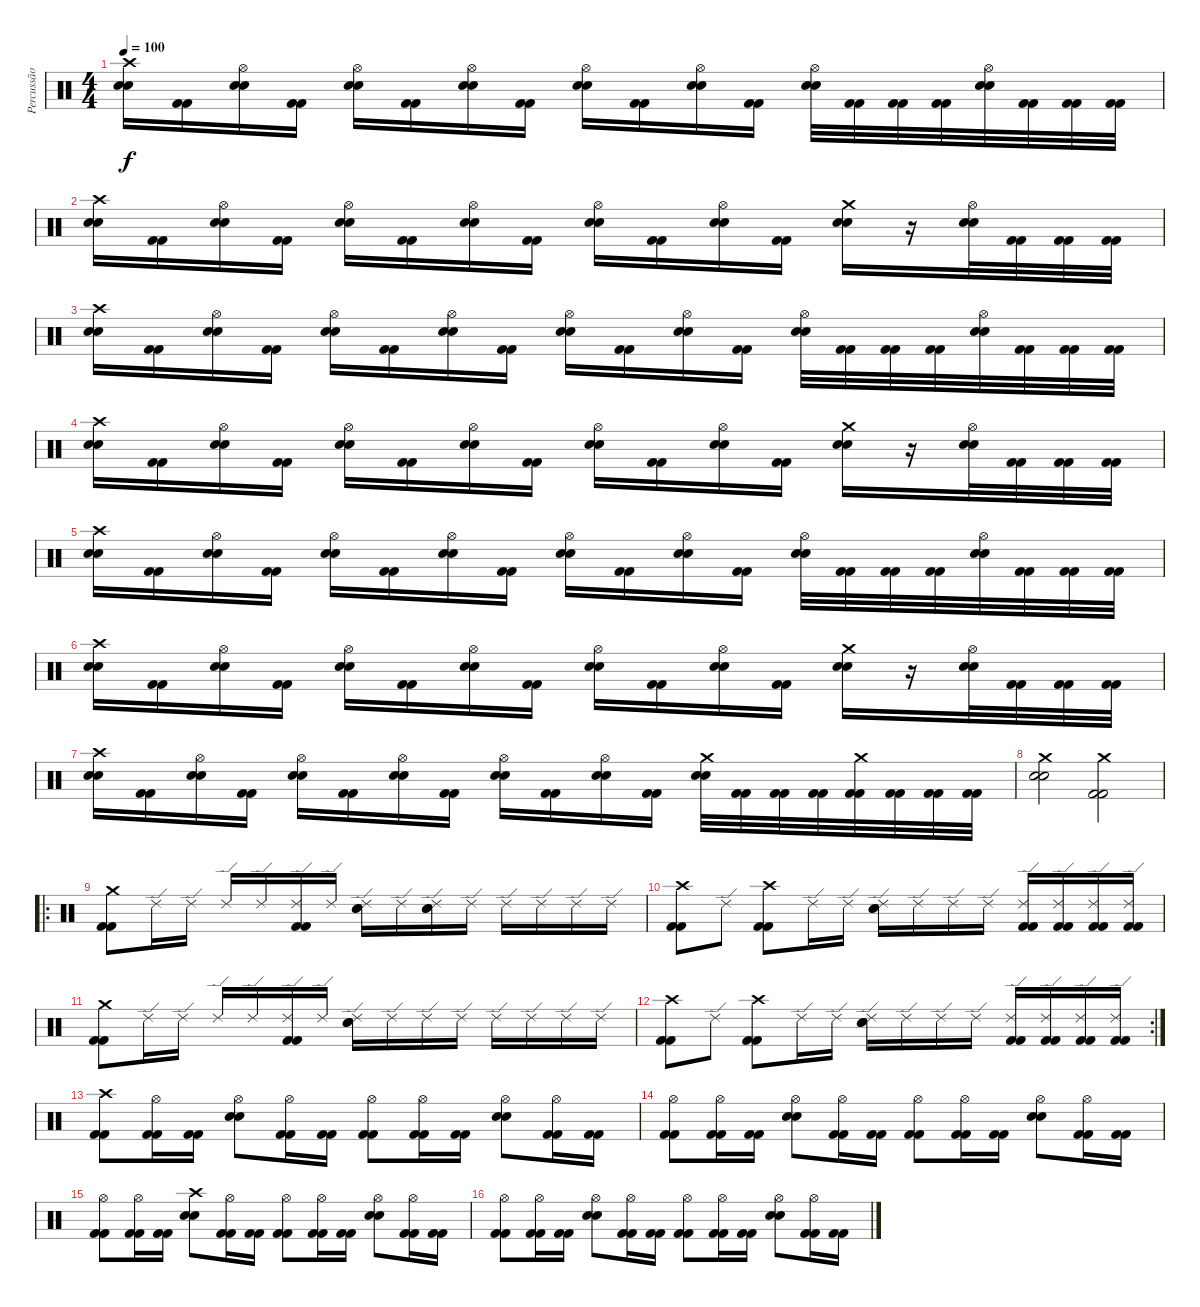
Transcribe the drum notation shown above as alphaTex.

\track ("Percussão" "Percussão") {instrument percussion}
\staff {score}
\articulation defaults
\ts (4 4)
\tempo 100
\clef neutral
\ks c
("Crash high (hit)" "Electric Snare (hit)" "Electric Snare (hit)").16{dy f} ("Kick (hit) 2" "Kick (hit) 2").16 ("Hi-Hat (open)" "Electric Snare (hit)" "Electric Snare (hit)").16 ("Kick (hit) 2" "Kick (hit) 2").16 ("Hi-Hat (open)" "Electric Snare (hit)" "Electric Snare (hit)").16 ("Kick (hit) 2" "Kick (hit) 2").16 ("Hi-Hat (open)" "Electric Snare (hit)" "Electric Snare (hit)").16 ("Kick (hit) 2" "Kick (hit) 2").16 ("Hi-Hat (open)" "Electric Snare (hit)" "Electric Snare (hit)").16 ("Kick (hit) 2" "Kick (hit) 2").16 ("Hi-Hat (open)" "Electric Snare (hit)" "Electric Snare (hit)").16 ("Kick (hit) 2" "Kick (hit) 2").16 ("Hi-Hat (open)" "Electric Snare (hit)" "Electric Snare (hit)").32 ("Kick (hit) 2" "Kick (hit) 2").32 ("Kick (hit) 2" "Kick (hit) 2").32 ("Kick (hit) 2" "Kick (hit) 2").32 ("Hi-Hat (open)" "Electric Snare (hit)" "Electric Snare (hit)").32 ("Kick (hit) 2" "Kick (hit) 2").32 ("Kick (hit) 2" "Kick (hit) 2").32 ("Kick (hit) 2" "Kick (hit) 2").32 |
("Crash high (hit)" "Electric Snare (hit)" "Electric Snare (hit)").16 ("Kick (hit) 2" "Kick (hit) 2").16 ("Hi-Hat (open)" "Electric Snare (hit)" "Electric Snare (hit)").16 ("Kick (hit) 2" "Kick (hit) 2").16 ("Hi-Hat (open)" "Electric Snare (hit)" "Electric Snare (hit)").16 ("Kick (hit) 2" "Kick (hit) 2").16 ("Hi-Hat (open)" "Electric Snare (hit)" "Electric Snare (hit)").16 ("Kick (hit) 2" "Kick (hit) 2").16 ("Hi-Hat (open)" "Electric Snare (hit)" "Electric Snare (hit)").16 ("Kick (hit) 2" "Kick (hit) 2").16 ("Hi-Hat (open)" "Electric Snare (hit)" "Electric Snare (hit)").16 ("Kick (hit) 2" "Kick (hit) 2").16 ("Crash medium (hit)" "Electric Snare (hit)" "Electric Snare (hit)").16 r.16 ("Hi-Hat (open)" "Electric Snare (hit)" "Electric Snare (hit)").32 ("Kick (hit) 2" "Kick (hit) 2").32 ("Kick (hit) 2" "Kick (hit) 2").32 ("Kick (hit) 2" "Kick (hit) 2").32 |
("Crash high (hit)" "Electric Snare (hit)" "Electric Snare (hit)").16 ("Kick (hit) 2" "Kick (hit) 2").16 ("Hi-Hat (open)" "Electric Snare (hit)" "Electric Snare (hit)").16 ("Kick (hit) 2" "Kick (hit) 2").16 ("Hi-Hat (open)" "Electric Snare (hit)" "Electric Snare (hit)").16 ("Kick (hit) 2" "Kick (hit) 2").16 ("Hi-Hat (open)" "Electric Snare (hit)" "Electric Snare (hit)").16 ("Kick (hit) 2" "Kick (hit) 2").16 ("Hi-Hat (open)" "Electric Snare (hit)" "Electric Snare (hit)").16 ("Kick (hit) 2" "Kick (hit) 2").16 ("Hi-Hat (open)" "Electric Snare (hit)" "Electric Snare (hit)").16 ("Kick (hit) 2" "Kick (hit) 2").16 ("Hi-Hat (open)" "Electric Snare (hit)" "Electric Snare (hit)").32 ("Kick (hit) 2" "Kick (hit) 2").32 ("Kick (hit) 2" "Kick (hit) 2").32 ("Kick (hit) 2" "Kick (hit) 2").32 ("Hi-Hat (open)" "Electric Snare (hit)" "Electric Snare (hit)").32 ("Kick (hit) 2" "Kick (hit) 2").32 ("Kick (hit) 2" "Kick (hit) 2").32 ("Kick (hit) 2" "Kick (hit) 2").32 |
("Crash high (hit)" "Electric Snare (hit)" "Electric Snare (hit)").16 ("Kick (hit) 2" "Kick (hit) 2").16 ("Hi-Hat (open)" "Electric Snare (hit)" "Electric Snare (hit)").16 ("Kick (hit) 2" "Kick (hit) 2").16 ("Hi-Hat (open)" "Electric Snare (hit)" "Electric Snare (hit)").16 ("Kick (hit) 2" "Kick (hit) 2").16 ("Hi-Hat (open)" "Electric Snare (hit)" "Electric Snare (hit)").16 ("Kick (hit) 2" "Kick (hit) 2").16 ("Hi-Hat (open)" "Electric Snare (hit)" "Electric Snare (hit)").16 ("Kick (hit) 2" "Kick (hit) 2").16 ("Hi-Hat (open)" "Electric Snare (hit)" "Electric Snare (hit)").16 ("Kick (hit) 2" "Kick (hit) 2").16 ("Crash medium (hit)" "Electric Snare (hit)" "Electric Snare (hit)").16 r.16 ("Hi-Hat (open)" "Electric Snare (hit)" "Electric Snare (hit)").32 ("Kick (hit) 2" "Kick (hit) 2").32 ("Kick (hit) 2" "Kick (hit) 2").32 ("Kick (hit) 2" "Kick (hit) 2").32 |
("Crash high (hit)" "Electric Snare (hit)" "Electric Snare (hit)").16 ("Kick (hit) 2" "Kick (hit) 2").16 ("Hi-Hat (open)" "Electric Snare (hit)" "Electric Snare (hit)").16 ("Kick (hit) 2" "Kick (hit) 2").16 ("Hi-Hat (open)" "Electric Snare (hit)" "Electric Snare (hit)").16 ("Kick (hit) 2" "Kick (hit) 2").16 ("Hi-Hat (open)" "Electric Snare (hit)" "Electric Snare (hit)").16 ("Kick (hit) 2" "Kick (hit) 2").16 ("Hi-Hat (open)" "Electric Snare (hit)" "Electric Snare (hit)").16 ("Kick (hit) 2" "Kick (hit) 2").16 ("Hi-Hat (open)" "Electric Snare (hit)" "Electric Snare (hit)").16 ("Kick (hit) 2" "Kick (hit) 2").16 ("Hi-Hat (open)" "Electric Snare (hit)" "Electric Snare (hit)").32 ("Kick (hit) 2" "Kick (hit) 2").32 ("Kick (hit) 2" "Kick (hit) 2").32 ("Kick (hit) 2" "Kick (hit) 2").32 ("Hi-Hat (open)" "Electric Snare (hit)" "Electric Snare (hit)").32 ("Kick (hit) 2" "Kick (hit) 2").32 ("Kick (hit) 2" "Kick (hit) 2").32 ("Kick (hit) 2" "Kick (hit) 2").32 |
("Crash high (hit)" "Electric Snare (hit)" "Electric Snare (hit)").16 ("Kick (hit) 2" "Kick (hit) 2").16 ("Hi-Hat (open)" "Electric Snare (hit)" "Electric Snare (hit)").16 ("Kick (hit) 2" "Kick (hit) 2").16 ("Hi-Hat (open)" "Electric Snare (hit)" "Electric Snare (hit)").16 ("Kick (hit) 2" "Kick (hit) 2").16 ("Hi-Hat (open)" "Electric Snare (hit)" "Electric Snare (hit)").16 ("Kick (hit) 2" "Kick (hit) 2").16 ("Hi-Hat (open)" "Electric Snare (hit)" "Electric Snare (hit)").16 ("Kick (hit) 2" "Kick (hit) 2").16 ("Hi-Hat (open)" "Electric Snare (hit)" "Electric Snare (hit)").16 ("Kick (hit) 2" "Kick (hit) 2").16 ("Crash medium (hit)" "Electric Snare (hit)" "Electric Snare (hit)").16 r.16 ("Hi-Hat (open)" "Electric Snare (hit)" "Electric Snare (hit)").32 ("Kick (hit) 2" "Kick (hit) 2").32 ("Kick (hit) 2" "Kick (hit) 2").32 ("Kick (hit) 2" "Kick (hit) 2").32 |
("Crash high (hit)" "Electric Snare (hit)" "Electric Snare (hit)").16 ("Kick (hit) 2" "Kick (hit) 2").16 ("Hi-Hat (open)" "Electric Snare (hit)" "Electric Snare (hit)").16 ("Kick (hit) 2" "Kick (hit) 2").16 ("Hi-Hat (open)" "Electric Snare (hit)" "Electric Snare (hit)").16 ("Kick (hit) 2" "Kick (hit) 2").16 ("Hi-Hat (open)" "Electric Snare (hit)" "Electric Snare (hit)").16 ("Kick (hit) 2" "Kick (hit) 2").16 ("Hi-Hat (open)" "Electric Snare (hit)" "Electric Snare (hit)").16 ("Kick (hit) 2" "Kick (hit) 2").16 ("Hi-Hat (open)" "Electric Snare (hit)" "Electric Snare (hit)").16 ("Kick (hit) 2" "Kick (hit) 2").16 ("Crash medium (hit)" "Electric Snare (hit)" "Electric Snare (hit)").32 ("Kick (hit) 2" "Kick (hit) 2").32 ("Kick (hit) 2" "Kick (hit) 2").32 ("Kick (hit) 2" "Kick (hit) 2").32 ("Crash medium (hit)" "Kick (hit) 2" "Kick (hit) 2").32 ("Kick (hit) 2" "Kick (hit) 2").32 ("Kick (hit) 2" "Kick (hit) 2").32 ("Kick (hit) 2" "Kick (hit) 2").32 |
("Crash medium (hit)" "Electric Snare (hit)" "Electric Snare (hit)").2 ("Crash medium (hit)" "Kick (hit) 2" "Kick (hit) 2").2 |
\ro
("Crash medium (hit)" "Kick (hit) 2" "Kick (hit) 2").8 "Ride (edge) 2".16 "Ride (edge) 2".16 "Ride (edge) 2".16 "Ride (edge) 2".16 ("Ride (edge) 2" "Kick (hit) 2" "Kick (hit) 2").16 "Ride (edge) 2".16 ("Ride (edge) 2" "Electric Snare (hit)" "Electric Snare (hit)").16 "Ride (edge) 2".16 ("Ride (edge) 2" "Electric Snare (hit)" "Electric Snare (hit)").16 "Ride (edge) 2".16 "Ride (edge) 2".16 "Ride (edge) 2".16 "Ride (edge) 2".16 "Ride (edge) 2".16 |
("Crash high (hit)" "Kick (hit) 2" "Kick (hit) 2").8 "Ride (edge) 2".8 ("Crash high (hit)" "Kick (hit) 2" "Kick (hit) 2").8 "Ride (edge) 2".16 "Ride (edge) 2".16 ("Ride (edge) 2" "Electric Snare (hit)" "Electric Snare (hit)").16 "Ride (edge) 2".16 "Ride (edge) 2".16 "Ride (edge) 2".16 ("Ride (edge) 2" "Kick (hit) 2" "Kick (hit) 2").16 ("Ride (edge) 2" "Kick (hit) 2" "Kick (hit) 2").16 ("Ride (edge) 2" "Kick (hit) 2" "Kick (hit) 2").16 ("Ride (edge) 2" "Kick (hit) 2" "Kick (hit) 2").16 |
("Crash medium (hit)" "Kick (hit) 2" "Kick (hit) 2").8 "Ride (edge) 2".16 "Ride (edge) 2".16 "Ride (edge) 2".16 "Ride (edge) 2".16 ("Ride (edge) 2" "Kick (hit) 2" "Kick (hit) 2").16 "Ride (edge) 2".16 ("Ride (edge) 2" "Electric Snare (hit)" "Electric Snare (hit)").16 "Ride (edge) 2".16 "Ride (edge) 2".16 "Ride (edge) 2".16 "Ride (edge) 2".16 "Ride (edge) 2".16 "Ride (edge) 2".16 "Ride (edge) 2".16 |
\rc 2
("Crash high (hit)" "Kick (hit) 2" "Kick (hit) 2").8 "Ride (edge) 2".8 ("Crash high (hit)" "Kick (hit) 2" "Kick (hit) 2").8 "Ride (edge) 2".16 "Ride (edge) 2".16 ("Ride (edge) 2" "Electric Snare (hit)" "Electric Snare (hit)").16 "Ride (edge) 2".16 "Ride (edge) 2".16 "Ride (edge) 2".16 ("Ride (edge) 2" "Kick (hit) 2" "Kick (hit) 2").16 ("Ride (edge) 2" "Kick (hit) 2" "Kick (hit) 2").16 ("Ride (edge) 2" "Kick (hit) 2" "Kick (hit) 2").16 ("Ride (edge) 2" "Kick (hit) 2" "Kick (hit) 2").16 |
("Crash high (hit)" "Kick (hit) 2" "Kick (hit) 2").8 ("Hi-Hat (open)" "Kick (hit) 2" "Kick (hit) 2").16 ("Kick (hit) 2" "Kick (hit) 2").16 ("Hi-Hat (open)" "Electric Snare (hit)" "Electric Snare (hit)").8 ("Hi-Hat (open)" "Kick (hit) 2" "Kick (hit) 2").16 ("Kick (hit) 2" "Kick (hit) 2").16 ("Hi-Hat (open)" "Kick (hit) 2" "Kick (hit) 2").8 ("Hi-Hat (open)" "Kick (hit) 2" "Kick (hit) 2").16 ("Kick (hit) 2" "Kick (hit) 2").16 ("Hi-Hat (open)" "Electric Snare (hit)" "Electric Snare (hit)").8 ("Hi-Hat (open)" "Kick (hit) 2" "Kick (hit) 2").16 ("Kick (hit) 2" "Kick (hit) 2").16 |
("Hi-Hat (open)" "Kick (hit) 2" "Kick (hit) 2").8 ("Hi-Hat (open)" "Kick (hit) 2" "Kick (hit) 2").16 ("Kick (hit) 2" "Kick (hit) 2").16 ("Hi-Hat (open)" "Electric Snare (hit)" "Electric Snare (hit)").8 ("Hi-Hat (open)" "Kick (hit) 2" "Kick (hit) 2").16 ("Kick (hit) 2" "Kick (hit) 2").16 ("Hi-Hat (open)" "Kick (hit) 2" "Kick (hit) 2").8 ("Hi-Hat (open)" "Kick (hit) 2" "Kick (hit) 2").16 ("Kick (hit) 2" "Kick (hit) 2").16 ("Hi-Hat (open)" "Electric Snare (hit)" "Electric Snare (hit)").8 ("Hi-Hat (open)" "Kick (hit) 2" "Kick (hit) 2").16 ("Kick (hit) 2" "Kick (hit) 2").16 |
("Hi-Hat (open)" "Kick (hit) 2" "Kick (hit) 2").8 ("Hi-Hat (open)" "Kick (hit) 2" "Kick (hit) 2").16 ("Kick (hit) 2" "Kick (hit) 2").16 ("Crash high (hit)" "Electric Snare (hit)" "Electric Snare (hit)").8 ("Hi-Hat (open)" "Kick (hit) 2" "Kick (hit) 2").16 ("Kick (hit) 2" "Kick (hit) 2").16 ("Hi-Hat (open)" "Kick (hit) 2" "Kick (hit) 2").8 ("Hi-Hat (open)" "Kick (hit) 2" "Kick (hit) 2").16 ("Kick (hit) 2" "Kick (hit) 2").16 ("Hi-Hat (open)" "Electric Snare (hit)" "Electric Snare (hit)").8 ("Hi-Hat (open)" "Kick (hit) 2" "Kick (hit) 2").16 ("Kick (hit) 2" "Kick (hit) 2").16 |
("Hi-Hat (open)" "Kick (hit) 2" "Kick (hit) 2").8 ("Hi-Hat (open)" "Kick (hit) 2" "Kick (hit) 2").16 ("Kick (hit) 2" "Kick (hit) 2").16 ("Hi-Hat (open)" "Electric Snare (hit)" "Electric Snare (hit)").8 ("Hi-Hat (open)" "Kick (hit) 2" "Kick (hit) 2").16 ("Kick (hit) 2" "Kick (hit) 2").16 ("Hi-Hat (open)" "Kick (hit) 2" "Kick (hit) 2").8 ("Hi-Hat (open)" "Kick (hit) 2" "Kick (hit) 2").16 ("Kick (hit) 2" "Kick (hit) 2").16 ("Hi-Hat (open)" "Electric Snare (hit)" "Electric Snare (hit)").8 ("Hi-Hat (open)" "Kick (hit) 2" "Kick (hit) 2").16 ("Kick (hit) 2" "Kick (hit) 2").16
